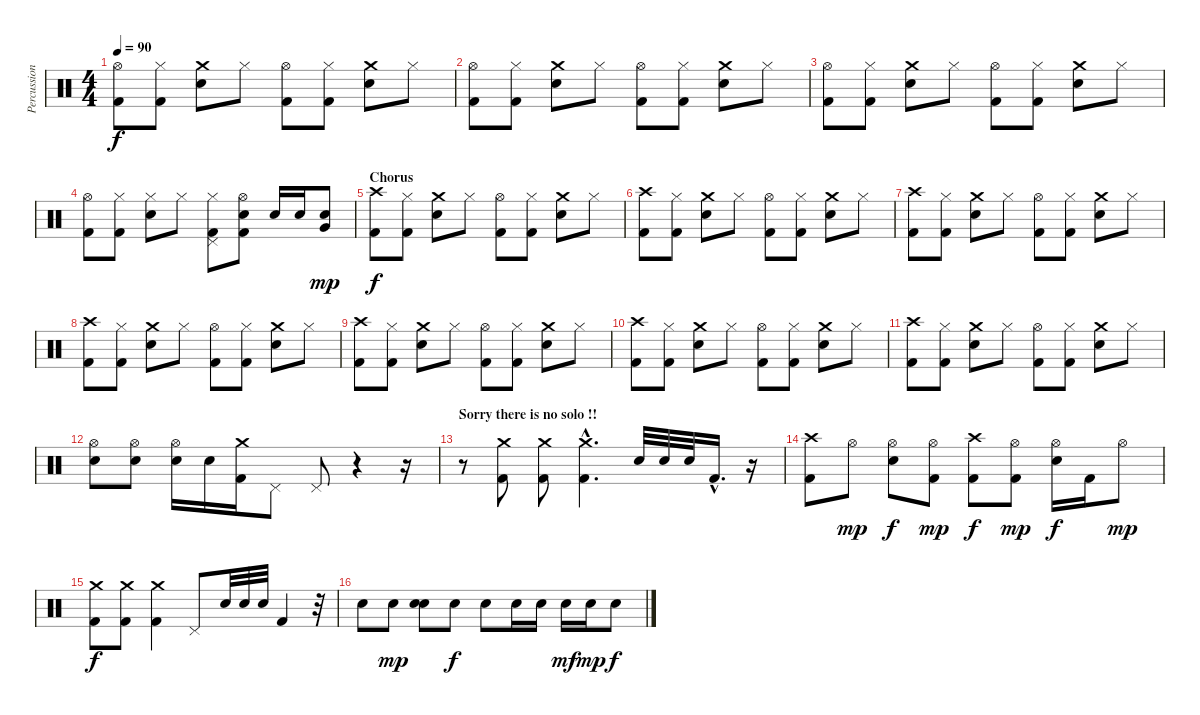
\track ("Percussions" "Percussion") {instrument percussion}
\staff {score}
\articulation defaults
\ts (4 4)
\tempo 90
\clef neutral
\ks c
("Hi-Hat (open)" "Kick (hit) 2").8{dy f} ("Hi-Hat (closed)" "Kick (hit) 2").8 ("Crash medium (hit)" "Electric Snare (hit)").8 "Hi-Hat (closed)".8 ("Kick (hit) 2" "Hi-Hat (open)").8 ("Hi-Hat (closed)" "Kick (hit) 2").8 ("Crash medium (hit)" "Electric Snare (hit)").8 "Hi-Hat (closed)".8 |
("Hi-Hat (open)" "Kick (hit) 2").8 ("Hi-Hat (closed)" "Kick (hit) 2").8 ("Crash medium (hit)" "Electric Snare (hit)").8 "Hi-Hat (closed)".8 ("Kick (hit) 2" "Hi-Hat (open)").8 ("Hi-Hat (closed)" "Kick (hit) 2").8 ("Crash medium (hit)" "Electric Snare (hit)").8 "Hi-Hat (closed)".8 |
("Hi-Hat (open)" "Kick (hit) 2").8 ("Hi-Hat (closed)" "Kick (hit) 2").8 ("Crash medium (hit)" "Electric Snare (hit)").8 "Hi-Hat (closed)".8 ("Kick (hit) 2" "Hi-Hat (open)").8 ("Hi-Hat (closed)" "Kick (hit) 2").8 ("Crash medium (hit)" "Electric Snare (hit)").8 "Hi-Hat (closed)".8 |
("Hi-Hat (open)" "Kick (hit) 2").8 ("Hi-Hat (closed)" "Kick (hit) 2").8 ("Hi-Hat (closed)" "Electric Snare (hit)").8 "Hi-Hat (closed)".8 ("Pedal Hi-Hat (hit)" "Hi-Hat (closed)" "Kick (hit) 2").8 ("Hi-Hat (open)" "Electric Snare (hit)" "Kick (hit) 2").8 "Electric Snare (hit)".16 "Electric Snare (hit)".16 ("Electric Snare (hit)" "Very Low Tom (hit)").8{dy mp} |
\section ("" "Chorus")
("Crash high (hit)" "Kick (hit) 2").8{dy f} ("Hi-Hat (closed)" "Kick (hit) 2").8 ("Crash medium (hit)" "Electric Snare (hit)").8 "Hi-Hat (closed)".8 ("Hi-Hat (open)" "Kick (hit) 2").8 ("Hi-Hat (closed)" "Kick (hit) 2").8 ("Crash medium (hit)" "Electric Snare (hit)").8 "Hi-Hat (closed)".8 |
("Crash high (hit)" "Kick (hit) 2").8 ("Hi-Hat (closed)" "Kick (hit) 2").8 ("Crash medium (hit)" "Electric Snare (hit)").8 "Hi-Hat (closed)".8 ("Hi-Hat (open)" "Kick (hit) 2").8 ("Hi-Hat (closed)" "Kick (hit) 2").8 ("Crash medium (hit)" "Electric Snare (hit)").8 "Hi-Hat (closed)".8 |
("Crash high (hit)" "Kick (hit) 2").8 ("Hi-Hat (closed)" "Kick (hit) 2").8 ("Crash medium (hit)" "Electric Snare (hit)").8 "Hi-Hat (closed)".8 ("Hi-Hat (open)" "Kick (hit) 2").8 ("Hi-Hat (closed)" "Kick (hit) 2").8 ("Crash medium (hit)" "Electric Snare (hit)").8 "Hi-Hat (closed)".8 |
("Crash high (hit)" "Kick (hit) 2").8 ("Hi-Hat (closed)" "Kick (hit) 2").8 ("Crash medium (hit)" "Electric Snare (hit)").8 "Hi-Hat (closed)".8 ("Hi-Hat (open)" "Kick (hit) 2").8 ("Hi-Hat (closed)" "Kick (hit) 2").8 ("Crash medium (hit)" "Electric Snare (hit)").8 "Hi-Hat (closed)".8 |
("Crash high (hit)" "Kick (hit) 2").8 ("Hi-Hat (closed)" "Kick (hit) 2").8 ("Crash medium (hit)" "Electric Snare (hit)").8 "Hi-Hat (closed)".8 ("Hi-Hat (open)" "Kick (hit) 2").8 ("Hi-Hat (closed)" "Kick (hit) 2").8 ("Crash medium (hit)" "Electric Snare (hit)").8 "Hi-Hat (closed)".8 |
("Crash high (hit)" "Kick (hit) 2").8 ("Hi-Hat (closed)" "Kick (hit) 2").8 ("Crash medium (hit)" "Electric Snare (hit)").8 "Hi-Hat (closed)".8 ("Hi-Hat (open)" "Kick (hit) 2").8 ("Hi-Hat (closed)" "Kick (hit) 2").8 ("Crash medium (hit)" "Electric Snare (hit)").8 "Hi-Hat (closed)".8 |
("Crash high (hit)" "Kick (hit) 2").8 ("Hi-Hat (closed)" "Kick (hit) 2").8 ("Crash medium (hit)" "Electric Snare (hit)").8 "Hi-Hat (closed)".8 ("Hi-Hat (open)" "Kick (hit) 2").8 ("Hi-Hat (closed)" "Kick (hit) 2").8 ("Crash medium (hit)" "Electric Snare (hit)").8 "Hi-Hat (closed)".8 |
("Hi-Hat (open)" "Electric Snare (hit)").8 ("Hi-Hat (open)" "Electric Snare (hit)").8 ("Hi-Hat (open)" "Electric Snare (hit)").16 "Electric Snare (hit)".16 ("Crash medium (hit)" "Kick (hit) 2").16 "Pedal Hi-Hat (hit)".8 "Pedal Hi-Hat (hit)".8 r.4 r.16 |
\section ("" "Sorry there is no solo !!")
r.8 ("Crash medium (hit)" "Kick (hit) 2").8 ("Crash medium (hit)" "Kick (hit) 2").8 ("Crash medium (hit)"{hac} "Kick (hit) 2"{hac}).4{d} "Electric Snare (hit)".32 "Snare (hit) 2".32 "Electric Snare (hit)".32 "Kick (hit) 2"{hac}.16{d} r.16 |
("Crash high (hit)" "Kick (hit) 2").8 "Hi-Hat (open)".8{dy mp} ("Hi-Hat (open)" "Electric Snare (hit)").8{dy f} ("Hi-Hat (open)" "Kick (hit) 2").8{dy mp} ("Crash high (hit)" "Kick (hit) 2").8{dy f} ("Hi-Hat (open)" "Kick (hit) 2").8{dy mp} ("Hi-Hat (open)" "Electric Snare (hit)").16{dy f} "Kick (hit) 2".16 "Hi-Hat (open)".8{dy mp} |
("Crash medium (hit)" "Kick (hit) 2").8{dy f} ("Crash medium (hit)" "Kick (hit) 2").8 ("Crash medium (hit)" "Kick (hit) 2").4 "Pedal Hi-Hat (hit)".8 "Electric Snare (hit)".32 "Snare (hit) 2".32 "Electric Snare (hit)".32 "Kick (hit) 2".4 r.32 |
"Electric Snare (hit)".8 "Snare (hit) 2".8{dy mp} ("Electric Snare (hit)" "Snare (hit) 2").8 "Electric Snare (hit)".8{dy f} "Electric Snare (hit)".8 "Electric Snare (hit)".16 "Electric Snare (hit)".16 "Electric Snare (hit)".16{dy mf} "Electric Snare (hit)".16{dy mp} "Electric Snare (hit)".8{dy f}
